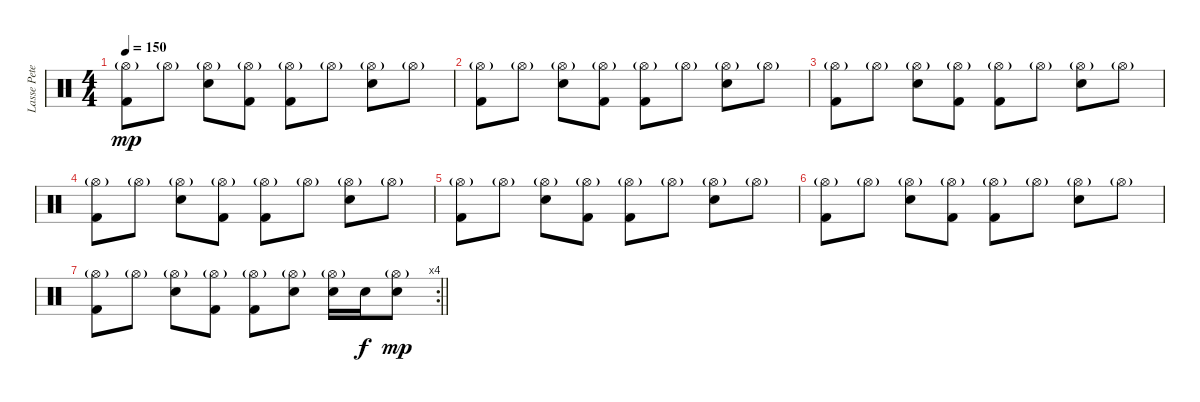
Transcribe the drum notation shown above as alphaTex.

\track ("Lasse Peterson" "Lasse Pete") {instrument percussion}
\staff {score}
\articulation defaults
\ts (4 4)
\tempo 150
\clef neutral
\ks c
("Kick (hit) 2" "Hi-Hat (open)"{g}).8{dy mp} "Hi-Hat (open)"{g}.8 ("Electric Snare (hit)" "Hi-Hat (open)"{g}).8 ("Kick (hit) 2" "Hi-Hat (open)"{g}).8 ("Kick (hit) 2" "Hi-Hat (open)"{g}).8 "Hi-Hat (open)"{g}.8 ("Electric Snare (hit)" "Hi-Hat (open)"{g}).8 "Hi-Hat (open)"{g}.8 |
("Kick (hit) 2" "Hi-Hat (open)"{g}).8 "Hi-Hat (open)"{g}.8 ("Electric Snare (hit)" "Hi-Hat (open)"{g}).8 ("Kick (hit) 2" "Hi-Hat (open)"{g}).8 ("Kick (hit) 2" "Hi-Hat (open)"{g}).8 "Hi-Hat (open)"{g}.8 ("Electric Snare (hit)" "Hi-Hat (open)"{g}).8 "Hi-Hat (open)"{g}.8 |
("Kick (hit) 2" "Hi-Hat (open)"{g}).8 "Hi-Hat (open)"{g}.8 ("Electric Snare (hit)" "Hi-Hat (open)"{g}).8 ("Kick (hit) 2" "Hi-Hat (open)"{g}).8 ("Kick (hit) 2" "Hi-Hat (open)"{g}).8 "Hi-Hat (open)"{g}.8 ("Electric Snare (hit)" "Hi-Hat (open)"{g}).8 "Hi-Hat (open)"{g}.8 |
("Kick (hit) 2" "Hi-Hat (open)"{g}).8 "Hi-Hat (open)"{g}.8 ("Electric Snare (hit)" "Hi-Hat (open)"{g}).8 ("Kick (hit) 2" "Hi-Hat (open)"{g}).8 ("Kick (hit) 2" "Hi-Hat (open)"{g}).8 "Hi-Hat (open)"{g}.8 ("Electric Snare (hit)" "Hi-Hat (open)"{g}).8 "Hi-Hat (open)"{g}.8 |
("Kick (hit) 2" "Hi-Hat (open)"{g}).8 "Hi-Hat (open)"{g}.8 ("Electric Snare (hit)" "Hi-Hat (open)"{g}).8 ("Kick (hit) 2" "Hi-Hat (open)"{g}).8 ("Kick (hit) 2" "Hi-Hat (open)"{g}).8 "Hi-Hat (open)"{g}.8 ("Electric Snare (hit)" "Hi-Hat (open)"{g}).8 "Hi-Hat (open)"{g}.8 |
("Kick (hit) 2" "Hi-Hat (open)"{g}).8 "Hi-Hat (open)"{g}.8 ("Electric Snare (hit)" "Hi-Hat (open)"{g}).8 ("Kick (hit) 2" "Hi-Hat (open)"{g}).8 ("Kick (hit) 2" "Hi-Hat (open)"{g}).8 "Hi-Hat (open)"{g}.8 ("Electric Snare (hit)" "Hi-Hat (open)"{g}).8 "Hi-Hat (open)"{g}.8 |
\rc 4
\barLineRight lightlight
("Kick (hit) 2" "Hi-Hat (open)"{g}).8 "Hi-Hat (open)"{g}.8 ("Electric Snare (hit)" "Hi-Hat (open)"{g}).8 ("Kick (hit) 2" "Hi-Hat (open)"{g}).8 ("Kick (hit) 2" "Hi-Hat (open)"{g}).8 ("Electric Snare (hit)" "Hi-Hat (open)"{g}).8 ("Electric Snare (hit)" "Hi-Hat (open)"{g}).16 "Electric Snare (hit)".16{dy f} ("Electric Snare (hit)" "Hi-Hat (open)"{g}).8{dy mp}
